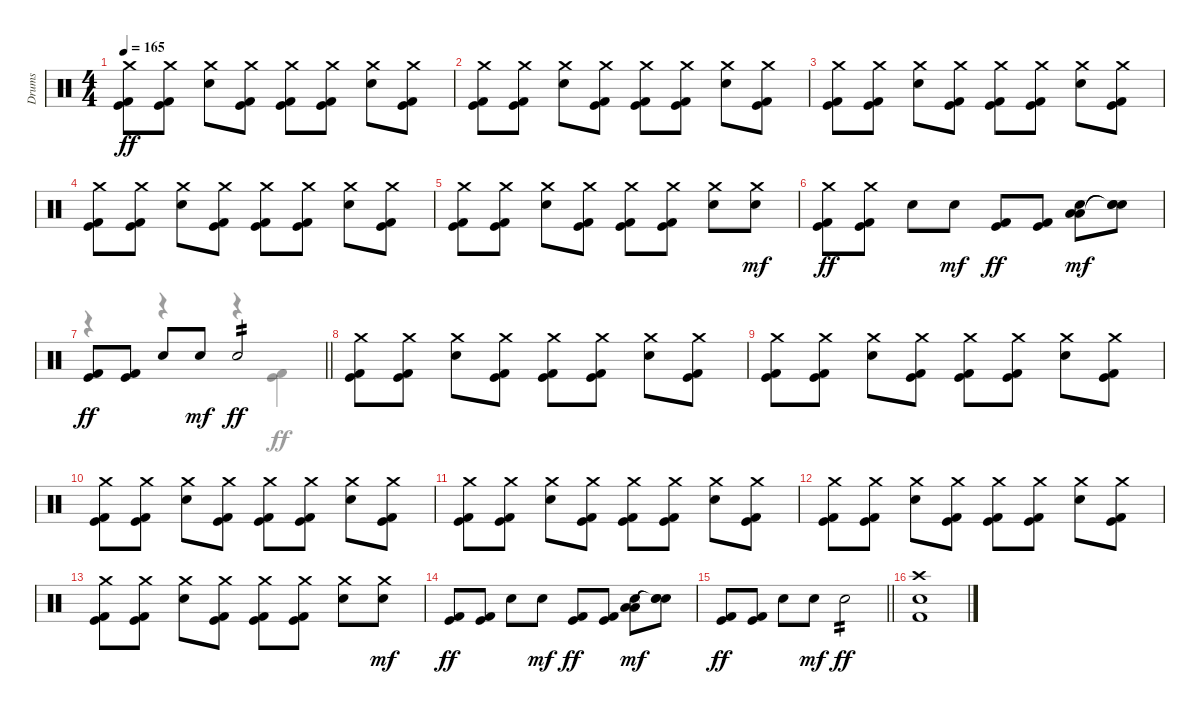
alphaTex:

\track ("Drums" "Drums") {instrument percussion}
\staff
\articulation defaults
\voice
\ts (4 4)
\tempo 165
\clef neutral
\ks c
("Crash medium (hit)" "Kick (hit) 2" "Kick (hit)").8{dy ff} ("Crash medium (hit)" "Kick (hit) 2" "Kick (hit)").8 ("Crash medium (hit)" "Electric Snare (hit)").8 ("Crash medium (hit)" "Kick (hit) 2" "Kick (hit)").8 ("Crash medium (hit)" "Kick (hit) 2" "Kick (hit)").8 ("Crash medium (hit)" "Kick (hit) 2" "Kick (hit)").8 ("Crash medium (hit)" "Electric Snare (hit)").8 ("Crash medium (hit)" "Kick (hit) 2" "Kick (hit)").8 |
("Crash medium (hit)" "Kick (hit) 2" "Kick (hit)").8 ("Crash medium (hit)" "Kick (hit) 2" "Kick (hit)").8 ("Crash medium (hit)" "Electric Snare (hit)").8 ("Crash medium (hit)" "Kick (hit) 2" "Kick (hit)").8 ("Crash medium (hit)" "Kick (hit) 2" "Kick (hit)").8 ("Crash medium (hit)" "Kick (hit) 2" "Kick (hit)").8 ("Crash medium (hit)" "Electric Snare (hit)").8 ("Crash medium (hit)" "Kick (hit) 2" "Kick (hit)").8 |
("Crash medium (hit)" "Kick (hit) 2" "Kick (hit)").8 ("Crash medium (hit)" "Kick (hit) 2" "Kick (hit)").8 ("Crash medium (hit)" "Electric Snare (hit)").8 ("Crash medium (hit)" "Kick (hit) 2" "Kick (hit)").8 ("Crash medium (hit)" "Kick (hit) 2" "Kick (hit)").8 ("Crash medium (hit)" "Kick (hit) 2" "Kick (hit)").8 ("Crash medium (hit)" "Electric Snare (hit)").8 ("Crash medium (hit)" "Kick (hit) 2" "Kick (hit)").8 |
("Crash medium (hit)" "Kick (hit) 2" "Kick (hit)").8 ("Crash medium (hit)" "Kick (hit) 2" "Kick (hit)").8 ("Crash medium (hit)" "Electric Snare (hit)").8 ("Crash medium (hit)" "Kick (hit) 2" "Kick (hit)").8 ("Crash medium (hit)" "Kick (hit) 2" "Kick (hit)").8 ("Crash medium (hit)" "Kick (hit) 2" "Kick (hit)").8 ("Crash medium (hit)" "Electric Snare (hit)").8 ("Crash medium (hit)" "Kick (hit) 2" "Kick (hit)").8 |
("Crash medium (hit)" "Kick (hit) 2" "Kick (hit)").8 ("Crash medium (hit)" "Kick (hit) 2" "Kick (hit)").8 ("Crash medium (hit)" "Electric Snare (hit)").8 ("Crash medium (hit)" "Kick (hit) 2" "Kick (hit)").8 ("Crash medium (hit)" "Kick (hit) 2" "Kick (hit)").8 ("Crash medium (hit)" "Kick (hit) 2" "Kick (hit)").8 ("Crash medium (hit)" "Electric Snare (hit)").8 ("Crash medium (hit)" "Electric Snare (hit)").8{dy mf} |
("Crash medium (hit)" "Kick (hit) 2" "Kick (hit)").8{dy ff} ("Crash medium (hit)" "Kick (hit) 2" "Kick (hit)").8 "Electric Snare (hit)".8 "Electric Snare (hit)".8{dy mf} ("Kick (hit) 2" "Kick (hit)").8{dy ff} ("Kick (hit) 2" "Kick (hit)").8 ("Electric Snare (hit)" "Low Tom (hit)" "Low Floor Tom (hit)").8{dy mf} ("Electric Snare (hit)" "Snare (hit)"{t} "Snare (hit)"{t}).8 |
\barLineRight lightlight
("Kick (hit) 2" "Kick (hit)").8{dy ff} ("Kick (hit) 2" "Kick (hit)").8 "Electric Snare (hit)".8 "Electric Snare (hit)".8{dy mf} "Electric Snare (hit)".2{tp 2 dy ff} |
("Crash medium (hit)" "Kick (hit) 2" "Kick (hit)").8 ("Crash medium (hit)" "Kick (hit) 2" "Kick (hit)").8 ("Crash medium (hit)" "Electric Snare (hit)").8 ("Crash medium (hit)" "Kick (hit) 2" "Kick (hit)").8 ("Crash medium (hit)" "Kick (hit) 2" "Kick (hit)").8 ("Crash medium (hit)" "Kick (hit) 2" "Kick (hit)").8 ("Crash medium (hit)" "Electric Snare (hit)").8 ("Crash medium (hit)" "Kick (hit) 2" "Kick (hit)").8 |
("Crash medium (hit)" "Kick (hit) 2" "Kick (hit)").8 ("Crash medium (hit)" "Kick (hit) 2" "Kick (hit)").8 ("Crash medium (hit)" "Electric Snare (hit)").8 ("Crash medium (hit)" "Kick (hit) 2" "Kick (hit)").8 ("Crash medium (hit)" "Kick (hit) 2" "Kick (hit)").8 ("Crash medium (hit)" "Kick (hit) 2" "Kick (hit)").8 ("Crash medium (hit)" "Electric Snare (hit)").8 ("Crash medium (hit)" "Kick (hit) 2" "Kick (hit)").8 |
("Crash medium (hit)" "Kick (hit) 2" "Kick (hit)").8 ("Crash medium (hit)" "Kick (hit) 2" "Kick (hit)").8 ("Crash medium (hit)" "Electric Snare (hit)").8 ("Crash medium (hit)" "Kick (hit) 2" "Kick (hit)").8 ("Crash medium (hit)" "Kick (hit) 2" "Kick (hit)").8 ("Crash medium (hit)" "Kick (hit) 2" "Kick (hit)").8 ("Crash medium (hit)" "Electric Snare (hit)").8 ("Crash medium (hit)" "Kick (hit) 2" "Kick (hit)").8 |
("Crash medium (hit)" "Kick (hit) 2" "Kick (hit)").8 ("Crash medium (hit)" "Kick (hit) 2" "Kick (hit)").8 ("Crash medium (hit)" "Electric Snare (hit)").8 ("Crash medium (hit)" "Kick (hit) 2" "Kick (hit)").8 ("Crash medium (hit)" "Kick (hit) 2" "Kick (hit)").8 ("Crash medium (hit)" "Kick (hit) 2" "Kick (hit)").8 ("Crash medium (hit)" "Electric Snare (hit)").8 ("Crash medium (hit)" "Kick (hit) 2" "Kick (hit)").8 |
("Crash medium (hit)" "Kick (hit) 2" "Kick (hit)").8 ("Crash medium (hit)" "Kick (hit) 2" "Kick (hit)").8 ("Crash medium (hit)" "Electric Snare (hit)").8 ("Crash medium (hit)" "Kick (hit) 2" "Kick (hit)").8 ("Crash medium (hit)" "Kick (hit) 2" "Kick (hit)").8 ("Crash medium (hit)" "Kick (hit) 2" "Kick (hit)").8 ("Crash medium (hit)" "Electric Snare (hit)").8 ("Crash medium (hit)" "Kick (hit) 2" "Kick (hit)").8 |
("Crash medium (hit)" "Kick (hit) 2" "Kick (hit)").8 ("Crash medium (hit)" "Kick (hit) 2" "Kick (hit)").8 ("Crash medium (hit)" "Electric Snare (hit)").8 ("Crash medium (hit)" "Kick (hit) 2" "Kick (hit)").8 ("Crash medium (hit)" "Kick (hit) 2" "Kick (hit)").8 ("Crash medium (hit)" "Kick (hit) 2" "Kick (hit)").8 ("Crash medium (hit)" "Electric Snare (hit)").8 ("Crash medium (hit)" "Electric Snare (hit)").8{dy mf} |
("Kick (hit) 2" "Kick (hit)").8{dy ff} ("Kick (hit) 2" "Kick (hit)").8 "Electric Snare (hit)".8 "Electric Snare (hit)".8{dy mf} ("Kick (hit) 2" "Kick (hit)").8{dy ff} ("Kick (hit) 2" "Kick (hit)").8 ("Electric Snare (hit)" "Low Tom (hit)" "Low Floor Tom (hit)").8{dy mf} ("Electric Snare (hit)" "Snare (hit)"{t} "Snare (hit)"{t}).8 |
\barLineRight lightlight
("Kick (hit) 2" "Kick (hit)").8{dy ff} ("Kick (hit) 2" "Kick (hit)").8 "Electric Snare (hit)".8 "Electric Snare (hit)".8{dy mf} "Electric Snare (hit)".2{tp 2 dy ff} |
("Crash high (hit)" "Electric Snare (hit)" "Kick (hit) 2").1
\voice
\clef neutral
\ottava regular
\simile none
\ks c
|
|
|
|
|
|
\barLineRight lightlight
r.4 r.4 r.4 ("Kick (hit)" "Kick (hit) 2").4 |
|
|
|
|
|
|
|
\barLineRight lightlight
|
